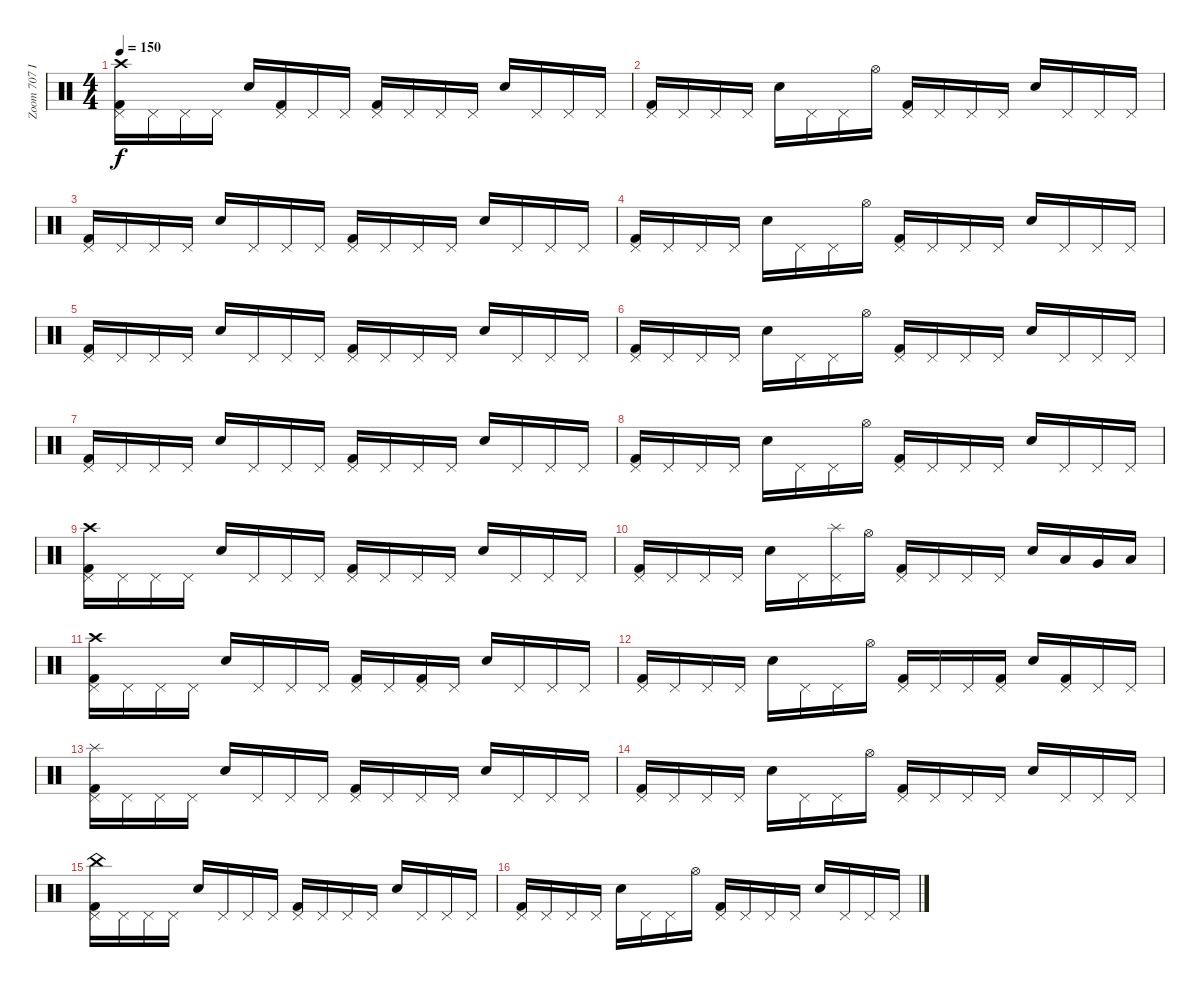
\track ("Zoom 707 II" "Zoom 707 I") {instrument percussion}
\staff {score}
\articulation defaults
\ts (4 4)
\tempo 150
\clef neutral
\ks c
("Crash high (hit)" "Pedal Hi-Hat (hit)" "Kick (hit) 2").16{dy f} "Pedal Hi-Hat (hit)".16 "Pedal Hi-Hat (hit)".16 "Pedal Hi-Hat (hit)".16 "Snare (hit) 2".16 ("Pedal Hi-Hat (hit)" "Kick (hit) 2").16 "Pedal Hi-Hat (hit)".16 "Pedal Hi-Hat (hit)".16 ("Pedal Hi-Hat (hit)" "Kick (hit) 2").16 "Pedal Hi-Hat (hit)".16 "Pedal Hi-Hat (hit)".16 "Pedal Hi-Hat (hit)".16 "Snare (hit) 2".16 "Pedal Hi-Hat (hit)".16 "Pedal Hi-Hat (hit)".16 "Pedal Hi-Hat (hit)".16 |
("Pedal Hi-Hat (hit)" "Kick (hit) 2").16 "Pedal Hi-Hat (hit)".16 "Pedal Hi-Hat (hit)".16 "Pedal Hi-Hat (hit)".16 "Snare (hit) 2".16 "Pedal Hi-Hat (hit)".16 "Pedal Hi-Hat (hit)".16 "Hi-Hat (open)".16 ("Pedal Hi-Hat (hit)" "Kick (hit) 2").16 "Pedal Hi-Hat (hit)".16 "Pedal Hi-Hat (hit)".16 "Pedal Hi-Hat (hit)".16 "Snare (hit) 2".16 "Pedal Hi-Hat (hit)".16 "Pedal Hi-Hat (hit)".16 "Pedal Hi-Hat (hit)".16 |
("Pedal Hi-Hat (hit)" "Kick (hit) 2").16 "Pedal Hi-Hat (hit)".16 "Pedal Hi-Hat (hit)".16 "Pedal Hi-Hat (hit)".16 "Snare (hit) 2".16 "Pedal Hi-Hat (hit)".16 "Pedal Hi-Hat (hit)".16 "Pedal Hi-Hat (hit)".16 ("Pedal Hi-Hat (hit)" "Kick (hit) 2").16 "Pedal Hi-Hat (hit)".16 "Pedal Hi-Hat (hit)".16 "Pedal Hi-Hat (hit)".16 "Snare (hit) 2".16 "Pedal Hi-Hat (hit)".16 "Pedal Hi-Hat (hit)".16 "Pedal Hi-Hat (hit)".16 |
("Pedal Hi-Hat (hit)" "Kick (hit) 2").16 "Pedal Hi-Hat (hit)".16 "Pedal Hi-Hat (hit)".16 "Pedal Hi-Hat (hit)".16 "Snare (hit) 2".16 "Pedal Hi-Hat (hit)".16 "Pedal Hi-Hat (hit)".16 "Hi-Hat (open)".16 ("Pedal Hi-Hat (hit)" "Kick (hit) 2").16 "Pedal Hi-Hat (hit)".16 "Pedal Hi-Hat (hit)".16 "Pedal Hi-Hat (hit)".16 "Snare (hit) 2".16 "Pedal Hi-Hat (hit)".16 "Pedal Hi-Hat (hit)".16 "Pedal Hi-Hat (hit)".16 |
("Pedal Hi-Hat (hit)" "Kick (hit) 2").16 "Pedal Hi-Hat (hit)".16 "Pedal Hi-Hat (hit)".16 "Pedal Hi-Hat (hit)".16 "Snare (hit) 2".16 "Pedal Hi-Hat (hit)".16 "Pedal Hi-Hat (hit)".16 "Pedal Hi-Hat (hit)".16 ("Pedal Hi-Hat (hit)" "Kick (hit) 2").16 "Pedal Hi-Hat (hit)".16 "Pedal Hi-Hat (hit)".16 "Pedal Hi-Hat (hit)".16 "Snare (hit) 2".16 "Pedal Hi-Hat (hit)".16 "Pedal Hi-Hat (hit)".16 "Pedal Hi-Hat (hit)".16 |
("Pedal Hi-Hat (hit)" "Kick (hit) 2").16 "Pedal Hi-Hat (hit)".16 "Pedal Hi-Hat (hit)".16 "Pedal Hi-Hat (hit)".16 "Snare (hit) 2".16 "Pedal Hi-Hat (hit)".16 "Pedal Hi-Hat (hit)".16 "Hi-Hat (open)".16 ("Pedal Hi-Hat (hit)" "Kick (hit) 2").16 "Pedal Hi-Hat (hit)".16 "Pedal Hi-Hat (hit)".16 "Pedal Hi-Hat (hit)".16 "Snare (hit) 2".16 "Pedal Hi-Hat (hit)".16 "Pedal Hi-Hat (hit)".16 "Pedal Hi-Hat (hit)".16 |
("Pedal Hi-Hat (hit)" "Kick (hit) 2").16 "Pedal Hi-Hat (hit)".16 "Pedal Hi-Hat (hit)".16 "Pedal Hi-Hat (hit)".16 "Snare (hit) 2".16 "Pedal Hi-Hat (hit)".16 "Pedal Hi-Hat (hit)".16 "Pedal Hi-Hat (hit)".16 ("Pedal Hi-Hat (hit)" "Kick (hit) 2").16 "Pedal Hi-Hat (hit)".16 "Pedal Hi-Hat (hit)".16 "Pedal Hi-Hat (hit)".16 "Snare (hit) 2".16 "Pedal Hi-Hat (hit)".16 "Pedal Hi-Hat (hit)".16 "Pedal Hi-Hat (hit)".16 |
("Pedal Hi-Hat (hit)" "Kick (hit) 2").16 "Pedal Hi-Hat (hit)".16 "Pedal Hi-Hat (hit)".16 "Pedal Hi-Hat (hit)".16 "Snare (hit) 2".16 "Pedal Hi-Hat (hit)".16 "Pedal Hi-Hat (hit)".16 "Hi-Hat (open)".16 ("Pedal Hi-Hat (hit)" "Kick (hit) 2").16 "Pedal Hi-Hat (hit)".16 "Pedal Hi-Hat (hit)".16 "Pedal Hi-Hat (hit)".16 "Snare (hit) 2".16 "Pedal Hi-Hat (hit)".16 "Pedal Hi-Hat (hit)".16 "Pedal Hi-Hat (hit)".16 |
("Crash high (hit)" "Pedal Hi-Hat (hit)" "Kick (hit) 2").16 "Pedal Hi-Hat (hit)".16 "Pedal Hi-Hat (hit)".16 "Pedal Hi-Hat (hit)".16 "Snare (hit) 2".16 "Pedal Hi-Hat (hit)".16 "Pedal Hi-Hat (hit)".16 "Pedal Hi-Hat (hit)".16 ("Pedal Hi-Hat (hit)" "Kick (hit) 2").16 "Pedal Hi-Hat (hit)".16 "Pedal Hi-Hat (hit)".16 "Pedal Hi-Hat (hit)".16 "Snare (hit) 2".16 "Pedal Hi-Hat (hit)".16 "Pedal Hi-Hat (hit)".16 "Pedal Hi-Hat (hit)".16 |
("Pedal Hi-Hat (hit)" "Kick (hit) 2").16 "Pedal Hi-Hat (hit)".16 "Pedal Hi-Hat (hit)".16 "Pedal Hi-Hat (hit)".16 "Snare (hit) 2".16 "Pedal Hi-Hat (hit)".16 ("Splash (hit)" "Pedal Hi-Hat (hit)").16 "Hi-Hat (open)".16 ("Pedal Hi-Hat (hit)" "Kick (hit) 2").16 "Pedal Hi-Hat (hit)".16 "Pedal Hi-Hat (hit)".16 "Pedal Hi-Hat (hit)".16 "Snare (hit) 2".16 "Low Tom (hit)".16 "Very Low Tom (hit)".16 "Low Floor Tom (hit)".16 |
("Crash high (hit)" "Pedal Hi-Hat (hit)" "Kick (hit) 2").16 "Pedal Hi-Hat (hit)".16 "Pedal Hi-Hat (hit)".16 "Pedal Hi-Hat (hit)".16 "Snare (hit) 2".16 "Pedal Hi-Hat (hit)".16 "Pedal Hi-Hat (hit)".16 "Pedal Hi-Hat (hit)".16 ("Pedal Hi-Hat (hit)" "Kick (hit) 2").16 "Pedal Hi-Hat (hit)".16 ("Pedal Hi-Hat (hit)" "Kick (hit) 2").16 "Pedal Hi-Hat (hit)".16 "Snare (hit) 2".16 "Pedal Hi-Hat (hit)".16 "Pedal Hi-Hat (hit)".16 "Pedal Hi-Hat (hit)".16 |
("Pedal Hi-Hat (hit)" "Kick (hit) 2").16 "Pedal Hi-Hat (hit)".16 "Pedal Hi-Hat (hit)".16 "Pedal Hi-Hat (hit)".16 "Snare (hit) 2".16 "Pedal Hi-Hat (hit)".16 "Pedal Hi-Hat (hit)".16 "Hi-Hat (open)".16 ("Pedal Hi-Hat (hit)" "Kick (hit) 2").16 "Pedal Hi-Hat (hit)".16 "Pedal Hi-Hat (hit)".16 ("Pedal Hi-Hat (hit)" "Kick (hit) 2").16 "Snare (hit) 2".16 ("Pedal Hi-Hat (hit)" "Kick (hit) 2").16 "Pedal Hi-Hat (hit)".16 "Pedal Hi-Hat (hit)".16 |
("Splash (hit)" "Pedal Hi-Hat (hit)" "Kick (hit) 2").16 "Pedal Hi-Hat (hit)".16 "Pedal Hi-Hat (hit)".16 "Pedal Hi-Hat (hit)".16 "Snare (hit) 2".16 "Pedal Hi-Hat (hit)".16 "Pedal Hi-Hat (hit)".16 "Pedal Hi-Hat (hit)".16 ("Pedal Hi-Hat (hit)" "Kick (hit) 2").16 "Pedal Hi-Hat (hit)".16 "Pedal Hi-Hat (hit)".16 "Pedal Hi-Hat (hit)".16 "Snare (hit) 2".16 "Pedal Hi-Hat (hit)".16 "Pedal Hi-Hat (hit)".16 "Pedal Hi-Hat (hit)".16 |
("Pedal Hi-Hat (hit)" "Kick (hit) 2").16 "Pedal Hi-Hat (hit)".16 "Pedal Hi-Hat (hit)".16 "Pedal Hi-Hat (hit)".16 "Snare (hit) 2".16 "Pedal Hi-Hat (hit)".16 "Pedal Hi-Hat (hit)".16 "Hi-Hat (open)".16 ("Pedal Hi-Hat (hit)" "Kick (hit) 2").16 "Pedal Hi-Hat (hit)".16 "Pedal Hi-Hat (hit)".16 "Pedal Hi-Hat (hit)".16 "Snare (hit) 2".16 "Pedal Hi-Hat (hit)".16 "Pedal Hi-Hat (hit)".16 "Pedal Hi-Hat (hit)".16 |
("China (hit)" "Pedal Hi-Hat (hit)" "Kick (hit) 2").16 "Pedal Hi-Hat (hit)".16 "Pedal Hi-Hat (hit)".16 "Pedal Hi-Hat (hit)".16 "Snare (hit) 2".16 "Pedal Hi-Hat (hit)".16 "Pedal Hi-Hat (hit)".16 "Pedal Hi-Hat (hit)".16 ("Pedal Hi-Hat (hit)" "Kick (hit) 2").16 "Pedal Hi-Hat (hit)".16 "Pedal Hi-Hat (hit)".16 "Pedal Hi-Hat (hit)".16 "Snare (hit) 2".16 "Pedal Hi-Hat (hit)".16 "Pedal Hi-Hat (hit)".16 "Pedal Hi-Hat (hit)".16 |
("Pedal Hi-Hat (hit)" "Kick (hit) 2").16 "Pedal Hi-Hat (hit)".16 "Pedal Hi-Hat (hit)".16 "Pedal Hi-Hat (hit)".16 "Snare (hit) 2".16 "Pedal Hi-Hat (hit)".16 "Pedal Hi-Hat (hit)".16 "Hi-Hat (open)".16 ("Pedal Hi-Hat (hit)" "Kick (hit) 2").16 "Pedal Hi-Hat (hit)".16 "Pedal Hi-Hat (hit)".16 "Pedal Hi-Hat (hit)".16 "Snare (hit) 2".16 "Pedal Hi-Hat (hit)".16 "Pedal Hi-Hat (hit)".16 "Pedal Hi-Hat (hit)".16
